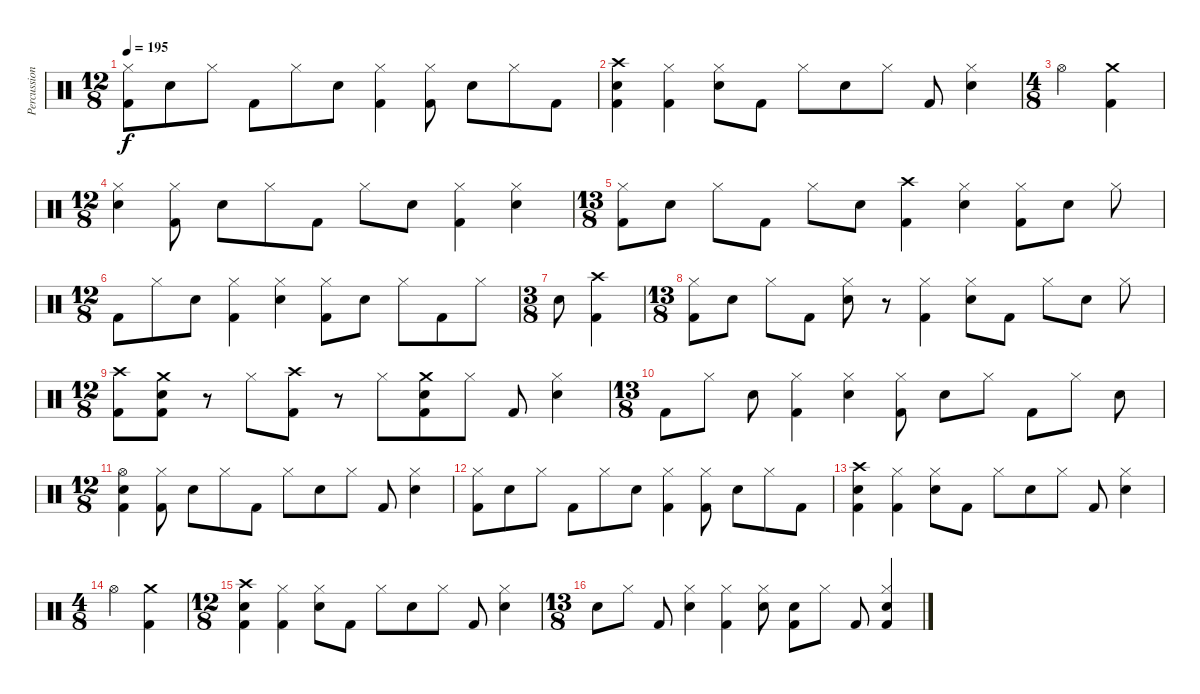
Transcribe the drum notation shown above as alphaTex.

\track ("Percussion" "Percussion") {instrument percussion}
\staff {score}
\articulation defaults
\ts (12 8)
\tempo 195
\clef neutral
\ks c
("Kick (hit) 2" "Hi-Hat (closed)").8{dy f} "Electric Snare (hit)".8 "Hi-Hat (closed)".8 "Kick (hit) 2".8 "Hi-Hat (closed)".8 "Electric Snare (hit)".8 ("Kick (hit) 2" "Hi-Hat (closed)").4 ("Kick (hit) 2" "Hi-Hat (closed)").8 "Electric Snare (hit)".8 "Hi-Hat (closed)".8 "Kick (hit) 2".8 |
("Kick (hit) 2" "Crash high (hit)" "Electric Snare (hit)").4 ("Kick (hit) 2" "Hi-Hat (closed)").4 ("Hi-Hat (closed)" "Electric Snare (hit)").8 "Kick (hit) 2".8 "Hi-Hat (closed)".8 "Electric Snare (hit)".8 "Hi-Hat (closed)".8 "Kick (hit) 2".8 ("Hi-Hat (closed)" "Electric Snare (hit)").4 |
\ts (4 8)
"Hi-Hat (open)".4 ("Kick (hit) 2" "Crash medium (hit)").4 |
\ts (12 8)
("Hi-Hat (closed)" "Electric Snare (hit)").4 ("Kick (hit) 2" "Hi-Hat (closed)").8 "Electric Snare (hit)".8 "Hi-Hat (closed)".8 "Kick (hit) 2".8 "Hi-Hat (closed)".8 "Electric Snare (hit)".8 ("Kick (hit) 2" "Hi-Hat (closed)").4 ("Hi-Hat (closed)" "Electric Snare (hit)").4 |
\ts (13 8)
("Kick (hit) 2" "Hi-Hat (closed)").8 "Electric Snare (hit)".8 "Hi-Hat (closed)".8 "Kick (hit) 2".8 "Hi-Hat (closed)".8 "Electric Snare (hit)".8 ("Kick (hit) 2" "Crash high (hit)").4 ("Hi-Hat (closed)" "Electric Snare (hit)").4 ("Kick (hit) 2" "Hi-Hat (closed)").8 "Electric Snare (hit)".8 "Hi-Hat (closed)".8 |
\ts (12 8)
"Kick (hit) 2".8 "Hi-Hat (closed)".8 "Electric Snare (hit)".8 ("Kick (hit) 2" "Hi-Hat (closed)").4 ("Hi-Hat (closed)" "Electric Snare (hit)").4 ("Kick (hit) 2" "Hi-Hat (closed)").8 "Electric Snare (hit)".8 "Hi-Hat (closed)".8 "Kick (hit) 2".8 "Hi-Hat (closed)".8 |
\ts (3 8)
"Electric Snare (hit)".8 ("Kick (hit) 2" "Crash high (hit)").4 |
\ts (13 8)
("Kick (hit) 2" "Hi-Hat (closed)").8 "Electric Snare (hit)".8 "Hi-Hat (closed)".8 "Kick (hit) 2".8 ("Hi-Hat (closed)" "Electric Snare (hit)").8 r.8 ("Kick (hit) 2" "Hi-Hat (closed)").4 ("Hi-Hat (closed)" "Electric Snare (hit)").8 "Kick (hit) 2".8 "Hi-Hat (closed)".8 "Electric Snare (hit)".8 "Hi-Hat (closed)".8 |
\ts (12 8)
("Kick (hit) 2" "Crash high (hit)").8 ("Kick (hit) 2" "Crash medium (hit)" "Electric Snare (hit)").8 r.8 "Hi-Hat (closed)".8 ("Kick (hit) 2" "Crash high (hit)").8 r.8 "Hi-Hat (closed)".8 ("Kick (hit) 2" "Crash medium (hit)" "Electric Snare (hit)").8 "Hi-Hat (closed)".8 "Kick (hit) 2".8 ("Hi-Hat (closed)" "Electric Snare (hit)").4 |
\ts (13 8)
"Kick (hit) 2".8 "Hi-Hat (closed)".8 "Electric Snare (hit)".8 ("Kick (hit) 2" "Hi-Hat (closed)").4 ("Hi-Hat (closed)" "Electric Snare (hit)").4 ("Kick (hit) 2" "Hi-Hat (closed)").8 "Electric Snare (hit)".8 "Hi-Hat (closed)".8 "Kick (hit) 2".8 "Hi-Hat (closed)".8 "Electric Snare (hit)".8 |
\ts (12 8)
("Kick (hit) 2" "Hi-Hat (open)" "Electric Snare (hit)").4 ("Kick (hit) 2" "Hi-Hat (closed)").8 "Electric Snare (hit)".8 "Hi-Hat (closed)".8 "Kick (hit) 2".8 "Hi-Hat (closed)".8 "Electric Snare (hit)".8 "Hi-Hat (closed)".8 "Kick (hit) 2".8 ("Hi-Hat (closed)" "Electric Snare (hit)").4 |
("Kick (hit) 2" "Hi-Hat (closed)").8 "Electric Snare (hit)".8 "Hi-Hat (closed)".8 "Kick (hit) 2".8 "Hi-Hat (closed)".8 "Electric Snare (hit)".8 ("Kick (hit) 2" "Hi-Hat (closed)").4 ("Kick (hit) 2" "Hi-Hat (closed)").8 "Electric Snare (hit)".8 "Hi-Hat (closed)".8 "Kick (hit) 2".8 |
("Kick (hit) 2" "Crash high (hit)" "Electric Snare (hit)").4 ("Kick (hit) 2" "Hi-Hat (closed)").4 ("Hi-Hat (closed)" "Electric Snare (hit)").8 "Kick (hit) 2".8 "Hi-Hat (closed)".8 "Electric Snare (hit)".8 "Hi-Hat (closed)".8 "Kick (hit) 2".8 ("Hi-Hat (closed)" "Electric Snare (hit)").4 |
\ts (4 8)
"Hi-Hat (open)".4 ("Kick (hit) 2" "Crash medium (hit)").4 |
\ts (12 8)
("Kick (hit) 2" "Crash high (hit)" "Electric Snare (hit)").4 ("Kick (hit) 2" "Hi-Hat (closed)").4 ("Hi-Hat (closed)" "Electric Snare (hit)").8 "Kick (hit) 2".8 "Hi-Hat (closed)".8 "Electric Snare (hit)".8 "Hi-Hat (closed)".8 "Kick (hit) 2".8 ("Hi-Hat (closed)" "Electric Snare (hit)").4 |
\ts (13 8)
"Electric Snare (hit)".8 "Hi-Hat (closed)".8 "Kick (hit) 2".8 ("Hi-Hat (closed)" "Electric Snare (hit)").4 ("Kick (hit) 2" "Hi-Hat (closed)").4 ("Hi-Hat (closed)" "Electric Snare (hit)").8 ("Kick (hit) 2" "Electric Snare (hit)").8 "Hi-Hat (closed)".8 "Kick (hit) 2".8 ("Kick (hit) 2" "Hi-Hat (closed)" "Electric Snare (hit)").4
